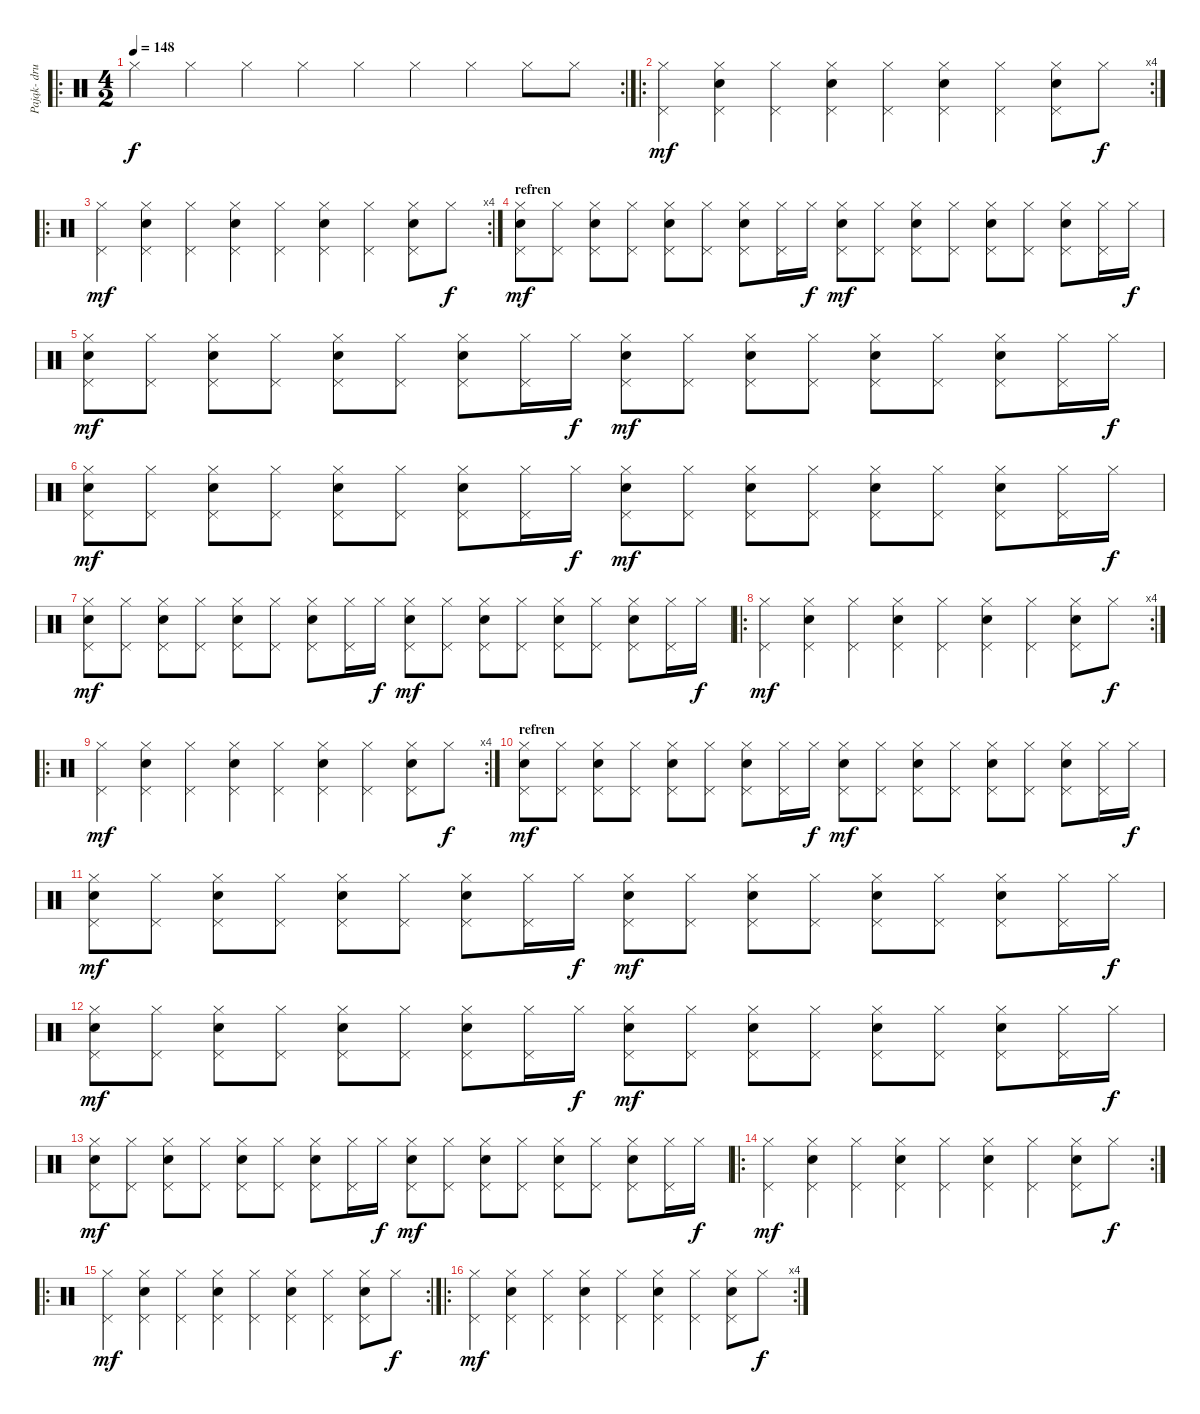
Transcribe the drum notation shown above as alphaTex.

\track ("Pająk- drum" "Pająk- dru") {instrument percussion}
\staff {score}
\articulation defaults
\ro
\rc 2
\ts (4 2)
\tempo 148
\clef neutral
\ks c "Hi-Hat (closed)".4{dy f} "Hi-Hat (closed)".4 "Hi-Hat (closed)".4 "Hi-Hat (closed)".4 "Hi-Hat (closed)".4 "Hi-Hat (closed)".4 "Hi-Hat (closed)".4 "Hi-Hat (closed)".8 "Hi-Hat (closed)".8
|
\ro
\rc 4
("Hi-Hat (closed)" "Pedal Hi-Hat (hit)").4{dy mf} ("Hi-Hat (closed)" "Snare (hit) 2" "Pedal Hi-Hat (hit)").4 ("Hi-Hat (closed)" "Pedal Hi-Hat (hit)").4 ("Hi-Hat (closed)" "Snare (hit) 2" "Pedal Hi-Hat (hit)").4 ("Hi-Hat (closed)" "Pedal Hi-Hat (hit)").4 ("Hi-Hat (closed)" "Snare (hit) 2" "Pedal Hi-Hat (hit)").4 ("Hi-Hat (closed)" "Pedal Hi-Hat (hit)").4 ("Hi-Hat (closed)" "Snare (hit) 2" "Pedal Hi-Hat (hit)").8 "Hi-Hat (closed)".8{dy f} |
\ro
\rc 4
("Hi-Hat (closed)" "Pedal Hi-Hat (hit)").4{dy mf} ("Hi-Hat (closed)" "Snare (hit) 2" "Pedal Hi-Hat (hit)").4 ("Hi-Hat (closed)" "Pedal Hi-Hat (hit)").4 ("Hi-Hat (closed)" "Snare (hit) 2" "Pedal Hi-Hat (hit)").4 ("Hi-Hat (closed)" "Pedal Hi-Hat (hit)").4 ("Hi-Hat (closed)" "Snare (hit) 2" "Pedal Hi-Hat (hit)").4 ("Hi-Hat (closed)" "Pedal Hi-Hat (hit)").4 ("Hi-Hat (closed)" "Snare (hit) 2" "Pedal Hi-Hat (hit)").8 "Hi-Hat (closed)".8{dy f} |
\section ("" "refren")
("Hi-Hat (closed)" "Snare (hit) 2" "Pedal Hi-Hat (hit)").8{dy mf} ("Hi-Hat (closed)" "Pedal Hi-Hat (hit)").8 ("Hi-Hat (closed)" "Snare (hit) 2" "Pedal Hi-Hat (hit)").8 ("Hi-Hat (closed)" "Pedal Hi-Hat (hit)").8 ("Hi-Hat (closed)" "Snare (hit) 2" "Pedal Hi-Hat (hit)").8 ("Hi-Hat (closed)" "Pedal Hi-Hat (hit)").8 ("Hi-Hat (closed)" "Snare (hit) 2" "Pedal Hi-Hat (hit)").8 ("Hi-Hat (closed)" "Pedal Hi-Hat (hit)").16 "Hi-Hat (closed)".16{dy f} ("Hi-Hat (closed)" "Snare (hit) 2" "Pedal Hi-Hat (hit)").8{dy mf} ("Hi-Hat (closed)" "Pedal Hi-Hat (hit)").8 ("Hi-Hat (closed)" "Snare (hit) 2" "Pedal Hi-Hat (hit)").8 ("Hi-Hat (closed)" "Pedal Hi-Hat (hit)").8 ("Hi-Hat (closed)" "Snare (hit) 2" "Pedal Hi-Hat (hit)").8 ("Hi-Hat (closed)" "Pedal Hi-Hat (hit)").8 ("Hi-Hat (closed)" "Snare (hit) 2" "Pedal Hi-Hat (hit)").8 ("Hi-Hat (closed)" "Pedal Hi-Hat (hit)").16 "Hi-Hat (closed)".16{dy f} |
("Hi-Hat (closed)" "Snare (hit) 2" "Pedal Hi-Hat (hit)").8{dy mf} ("Hi-Hat (closed)" "Pedal Hi-Hat (hit)").8 ("Hi-Hat (closed)" "Snare (hit) 2" "Pedal Hi-Hat (hit)").8 ("Hi-Hat (closed)" "Pedal Hi-Hat (hit)").8 ("Hi-Hat (closed)" "Snare (hit) 2" "Pedal Hi-Hat (hit)").8 ("Hi-Hat (closed)" "Pedal Hi-Hat (hit)").8 ("Hi-Hat (closed)" "Snare (hit) 2" "Pedal Hi-Hat (hit)").8 ("Hi-Hat (closed)" "Pedal Hi-Hat (hit)").16 "Hi-Hat (closed)".16{dy f} ("Hi-Hat (closed)" "Snare (hit) 2" "Pedal Hi-Hat (hit)").8{dy mf} ("Hi-Hat (closed)" "Pedal Hi-Hat (hit)").8 ("Hi-Hat (closed)" "Snare (hit) 2" "Pedal Hi-Hat (hit)").8 ("Hi-Hat (closed)" "Pedal Hi-Hat (hit)").8 ("Hi-Hat (closed)" "Snare (hit) 2" "Pedal Hi-Hat (hit)").8 ("Hi-Hat (closed)" "Pedal Hi-Hat (hit)").8 ("Hi-Hat (closed)" "Snare (hit) 2" "Pedal Hi-Hat (hit)").8 ("Hi-Hat (closed)" "Pedal Hi-Hat (hit)").16 "Hi-Hat (closed)".16{dy f} |
("Hi-Hat (closed)" "Snare (hit) 2" "Pedal Hi-Hat (hit)").8{dy mf} ("Hi-Hat (closed)" "Pedal Hi-Hat (hit)").8 ("Hi-Hat (closed)" "Snare (hit) 2" "Pedal Hi-Hat (hit)").8 ("Hi-Hat (closed)" "Pedal Hi-Hat (hit)").8 ("Hi-Hat (closed)" "Snare (hit) 2" "Pedal Hi-Hat (hit)").8 ("Hi-Hat (closed)" "Pedal Hi-Hat (hit)").8 ("Hi-Hat (closed)" "Snare (hit) 2" "Pedal Hi-Hat (hit)").8 ("Hi-Hat (closed)" "Pedal Hi-Hat (hit)").16 "Hi-Hat (closed)".16{dy f} ("Hi-Hat (closed)" "Snare (hit) 2" "Pedal Hi-Hat (hit)").8{dy mf} ("Hi-Hat (closed)" "Pedal Hi-Hat (hit)").8 ("Hi-Hat (closed)" "Snare (hit) 2" "Pedal Hi-Hat (hit)").8 ("Hi-Hat (closed)" "Pedal Hi-Hat (hit)").8 ("Hi-Hat (closed)" "Snare (hit) 2" "Pedal Hi-Hat (hit)").8 ("Hi-Hat (closed)" "Pedal Hi-Hat (hit)").8 ("Hi-Hat (closed)" "Snare (hit) 2" "Pedal Hi-Hat (hit)").8 ("Hi-Hat (closed)" "Pedal Hi-Hat (hit)").16 "Hi-Hat (closed)".16{dy f} |
("Hi-Hat (closed)" "Snare (hit) 2" "Pedal Hi-Hat (hit)").8{dy mf} ("Hi-Hat (closed)" "Pedal Hi-Hat (hit)").8 ("Hi-Hat (closed)" "Snare (hit) 2" "Pedal Hi-Hat (hit)").8 ("Hi-Hat (closed)" "Pedal Hi-Hat (hit)").8 ("Hi-Hat (closed)" "Snare (hit) 2" "Pedal Hi-Hat (hit)").8 ("Hi-Hat (closed)" "Pedal Hi-Hat (hit)").8 ("Hi-Hat (closed)" "Snare (hit) 2" "Pedal Hi-Hat (hit)").8 ("Hi-Hat (closed)" "Pedal Hi-Hat (hit)").16 "Hi-Hat (closed)".16{dy f} ("Hi-Hat (closed)" "Snare (hit) 2" "Pedal Hi-Hat (hit)").8{dy mf} ("Hi-Hat (closed)" "Pedal Hi-Hat (hit)").8 ("Hi-Hat (closed)" "Snare (hit) 2" "Pedal Hi-Hat (hit)").8 ("Hi-Hat (closed)" "Pedal Hi-Hat (hit)").8 ("Hi-Hat (closed)" "Snare (hit) 2" "Pedal Hi-Hat (hit)").8 ("Hi-Hat (closed)" "Pedal Hi-Hat (hit)").8 ("Hi-Hat (closed)" "Snare (hit) 2" "Pedal Hi-Hat (hit)").8 ("Hi-Hat (closed)" "Pedal Hi-Hat (hit)").16 "Hi-Hat (closed)".16{dy f} |
\ro
\rc 4
("Hi-Hat (closed)" "Pedal Hi-Hat (hit)").4{dy mf} ("Hi-Hat (closed)" "Snare (hit) 2" "Pedal Hi-Hat (hit)").4 ("Hi-Hat (closed)" "Pedal Hi-Hat (hit)").4 ("Hi-Hat (closed)" "Snare (hit) 2" "Pedal Hi-Hat (hit)").4 ("Hi-Hat (closed)" "Pedal Hi-Hat (hit)").4 ("Hi-Hat (closed)" "Snare (hit) 2" "Pedal Hi-Hat (hit)").4 ("Hi-Hat (closed)" "Pedal Hi-Hat (hit)").4 ("Hi-Hat (closed)" "Snare (hit) 2" "Pedal Hi-Hat (hit)").8 "Hi-Hat (closed)".8{dy f} |
\ro
\rc 4
("Hi-Hat (closed)" "Pedal Hi-Hat (hit)").4{dy mf} ("Hi-Hat (closed)" "Snare (hit) 2" "Pedal Hi-Hat (hit)").4 ("Hi-Hat (closed)" "Pedal Hi-Hat (hit)").4 ("Hi-Hat (closed)" "Snare (hit) 2" "Pedal Hi-Hat (hit)").4 ("Hi-Hat (closed)" "Pedal Hi-Hat (hit)").4 ("Hi-Hat (closed)" "Snare (hit) 2" "Pedal Hi-Hat (hit)").4 ("Hi-Hat (closed)" "Pedal Hi-Hat (hit)").4 ("Hi-Hat (closed)" "Snare (hit) 2" "Pedal Hi-Hat (hit)").8 "Hi-Hat (closed)".8{dy f} |
\section ("" "refren")
("Hi-Hat (closed)" "Snare (hit) 2" "Pedal Hi-Hat (hit)").8{dy mf} ("Hi-Hat (closed)" "Pedal Hi-Hat (hit)").8 ("Hi-Hat (closed)" "Snare (hit) 2" "Pedal Hi-Hat (hit)").8 ("Hi-Hat (closed)" "Pedal Hi-Hat (hit)").8 ("Hi-Hat (closed)" "Snare (hit) 2" "Pedal Hi-Hat (hit)").8 ("Hi-Hat (closed)" "Pedal Hi-Hat (hit)").8 ("Hi-Hat (closed)" "Snare (hit) 2" "Pedal Hi-Hat (hit)").8 ("Hi-Hat (closed)" "Pedal Hi-Hat (hit)").16 "Hi-Hat (closed)".16{dy f} ("Hi-Hat (closed)" "Snare (hit) 2" "Pedal Hi-Hat (hit)").8{dy mf} ("Hi-Hat (closed)" "Pedal Hi-Hat (hit)").8 ("Hi-Hat (closed)" "Snare (hit) 2" "Pedal Hi-Hat (hit)").8 ("Hi-Hat (closed)" "Pedal Hi-Hat (hit)").8 ("Hi-Hat (closed)" "Snare (hit) 2" "Pedal Hi-Hat (hit)").8 ("Hi-Hat (closed)" "Pedal Hi-Hat (hit)").8 ("Hi-Hat (closed)" "Snare (hit) 2" "Pedal Hi-Hat (hit)").8 ("Hi-Hat (closed)" "Pedal Hi-Hat (hit)").16 "Hi-Hat (closed)".16{dy f} |
("Hi-Hat (closed)" "Snare (hit) 2" "Pedal Hi-Hat (hit)").8{dy mf} ("Hi-Hat (closed)" "Pedal Hi-Hat (hit)").8 ("Hi-Hat (closed)" "Snare (hit) 2" "Pedal Hi-Hat (hit)").8 ("Hi-Hat (closed)" "Pedal Hi-Hat (hit)").8 ("Hi-Hat (closed)" "Snare (hit) 2" "Pedal Hi-Hat (hit)").8 ("Hi-Hat (closed)" "Pedal Hi-Hat (hit)").8 ("Hi-Hat (closed)" "Snare (hit) 2" "Pedal Hi-Hat (hit)").8 ("Hi-Hat (closed)" "Pedal Hi-Hat (hit)").16 "Hi-Hat (closed)".16{dy f} ("Hi-Hat (closed)" "Snare (hit) 2" "Pedal Hi-Hat (hit)").8{dy mf} ("Hi-Hat (closed)" "Pedal Hi-Hat (hit)").8 ("Hi-Hat (closed)" "Snare (hit) 2" "Pedal Hi-Hat (hit)").8 ("Hi-Hat (closed)" "Pedal Hi-Hat (hit)").8 ("Hi-Hat (closed)" "Snare (hit) 2" "Pedal Hi-Hat (hit)").8 ("Hi-Hat (closed)" "Pedal Hi-Hat (hit)").8 ("Hi-Hat (closed)" "Snare (hit) 2" "Pedal Hi-Hat (hit)").8 ("Hi-Hat (closed)" "Pedal Hi-Hat (hit)").16 "Hi-Hat (closed)".16{dy f} |
("Hi-Hat (closed)" "Snare (hit) 2" "Pedal Hi-Hat (hit)").8{dy mf} ("Hi-Hat (closed)" "Pedal Hi-Hat (hit)").8 ("Hi-Hat (closed)" "Snare (hit) 2" "Pedal Hi-Hat (hit)").8 ("Hi-Hat (closed)" "Pedal Hi-Hat (hit)").8 ("Hi-Hat (closed)" "Snare (hit) 2" "Pedal Hi-Hat (hit)").8 ("Hi-Hat (closed)" "Pedal Hi-Hat (hit)").8 ("Hi-Hat (closed)" "Snare (hit) 2" "Pedal Hi-Hat (hit)").8 ("Hi-Hat (closed)" "Pedal Hi-Hat (hit)").16 "Hi-Hat (closed)".16{dy f} ("Hi-Hat (closed)" "Snare (hit) 2" "Pedal Hi-Hat (hit)").8{dy mf} ("Hi-Hat (closed)" "Pedal Hi-Hat (hit)").8 ("Hi-Hat (closed)" "Snare (hit) 2" "Pedal Hi-Hat (hit)").8 ("Hi-Hat (closed)" "Pedal Hi-Hat (hit)").8 ("Hi-Hat (closed)" "Snare (hit) 2" "Pedal Hi-Hat (hit)").8 ("Hi-Hat (closed)" "Pedal Hi-Hat (hit)").8 ("Hi-Hat (closed)" "Snare (hit) 2" "Pedal Hi-Hat (hit)").8 ("Hi-Hat (closed)" "Pedal Hi-Hat (hit)").16 "Hi-Hat (closed)".16{dy f} |
("Hi-Hat (closed)" "Snare (hit) 2" "Pedal Hi-Hat (hit)").8{dy mf} ("Hi-Hat (closed)" "Pedal Hi-Hat (hit)").8 ("Hi-Hat (closed)" "Snare (hit) 2" "Pedal Hi-Hat (hit)").8 ("Hi-Hat (closed)" "Pedal Hi-Hat (hit)").8 ("Hi-Hat (closed)" "Snare (hit) 2" "Pedal Hi-Hat (hit)").8 ("Hi-Hat (closed)" "Pedal Hi-Hat (hit)").8 ("Hi-Hat (closed)" "Snare (hit) 2" "Pedal Hi-Hat (hit)").8 ("Hi-Hat (closed)" "Pedal Hi-Hat (hit)").16 "Hi-Hat (closed)".16{dy f} ("Hi-Hat (closed)" "Snare (hit) 2" "Pedal Hi-Hat (hit)").8{dy mf} ("Hi-Hat (closed)" "Pedal Hi-Hat (hit)").8 ("Hi-Hat (closed)" "Snare (hit) 2" "Pedal Hi-Hat (hit)").8 ("Hi-Hat (closed)" "Pedal Hi-Hat (hit)").8 ("Hi-Hat (closed)" "Snare (hit) 2" "Pedal Hi-Hat (hit)").8 ("Hi-Hat (closed)" "Pedal Hi-Hat (hit)").8 ("Hi-Hat (closed)" "Snare (hit) 2" "Pedal Hi-Hat (hit)").8 ("Hi-Hat (closed)" "Pedal Hi-Hat (hit)").16 "Hi-Hat (closed)".16{dy f} |
\ro
\rc 2
("Hi-Hat (closed)" "Pedal Hi-Hat (hit)").4{dy mf} ("Hi-Hat (closed)" "Snare (hit) 2" "Pedal Hi-Hat (hit)").4 ("Hi-Hat (closed)" "Pedal Hi-Hat (hit)").4 ("Hi-Hat (closed)" "Snare (hit) 2" "Pedal Hi-Hat (hit)").4 ("Hi-Hat (closed)" "Pedal Hi-Hat (hit)").4 ("Hi-Hat (closed)" "Snare (hit) 2" "Pedal Hi-Hat (hit)").4 ("Hi-Hat (closed)" "Pedal Hi-Hat (hit)").4 ("Hi-Hat (closed)" "Snare (hit) 2" "Pedal Hi-Hat (hit)").8 "Hi-Hat (closed)".8{dy f} |
\ro
\rc 2
("Hi-Hat (closed)" "Pedal Hi-Hat (hit)").4{dy mf} ("Hi-Hat (closed)" "Snare (hit) 2" "Pedal Hi-Hat (hit)").4 ("Hi-Hat (closed)" "Pedal Hi-Hat (hit)").4 ("Hi-Hat (closed)" "Snare (hit) 2" "Pedal Hi-Hat (hit)").4 ("Hi-Hat (closed)" "Pedal Hi-Hat (hit)").4 ("Hi-Hat (closed)" "Snare (hit) 2" "Pedal Hi-Hat (hit)").4 ("Hi-Hat (closed)" "Pedal Hi-Hat (hit)").4 ("Hi-Hat (closed)" "Snare (hit) 2" "Pedal Hi-Hat (hit)").8 "Hi-Hat (closed)".8{dy f} |
\ro
\rc 4
("Hi-Hat (closed)" "Pedal Hi-Hat (hit)").4{dy mf} ("Hi-Hat (closed)" "Snare (hit) 2" "Pedal Hi-Hat (hit)").4 ("Hi-Hat (closed)" "Pedal Hi-Hat (hit)").4 ("Hi-Hat (closed)" "Snare (hit) 2" "Pedal Hi-Hat (hit)").4 ("Hi-Hat (closed)" "Pedal Hi-Hat (hit)").4 ("Hi-Hat (closed)" "Snare (hit) 2" "Pedal Hi-Hat (hit)").4 ("Hi-Hat (closed)" "Pedal Hi-Hat (hit)").4 ("Hi-Hat (closed)" "Snare (hit) 2" "Pedal Hi-Hat (hit)").8 "Hi-Hat (closed)".8{dy f}
